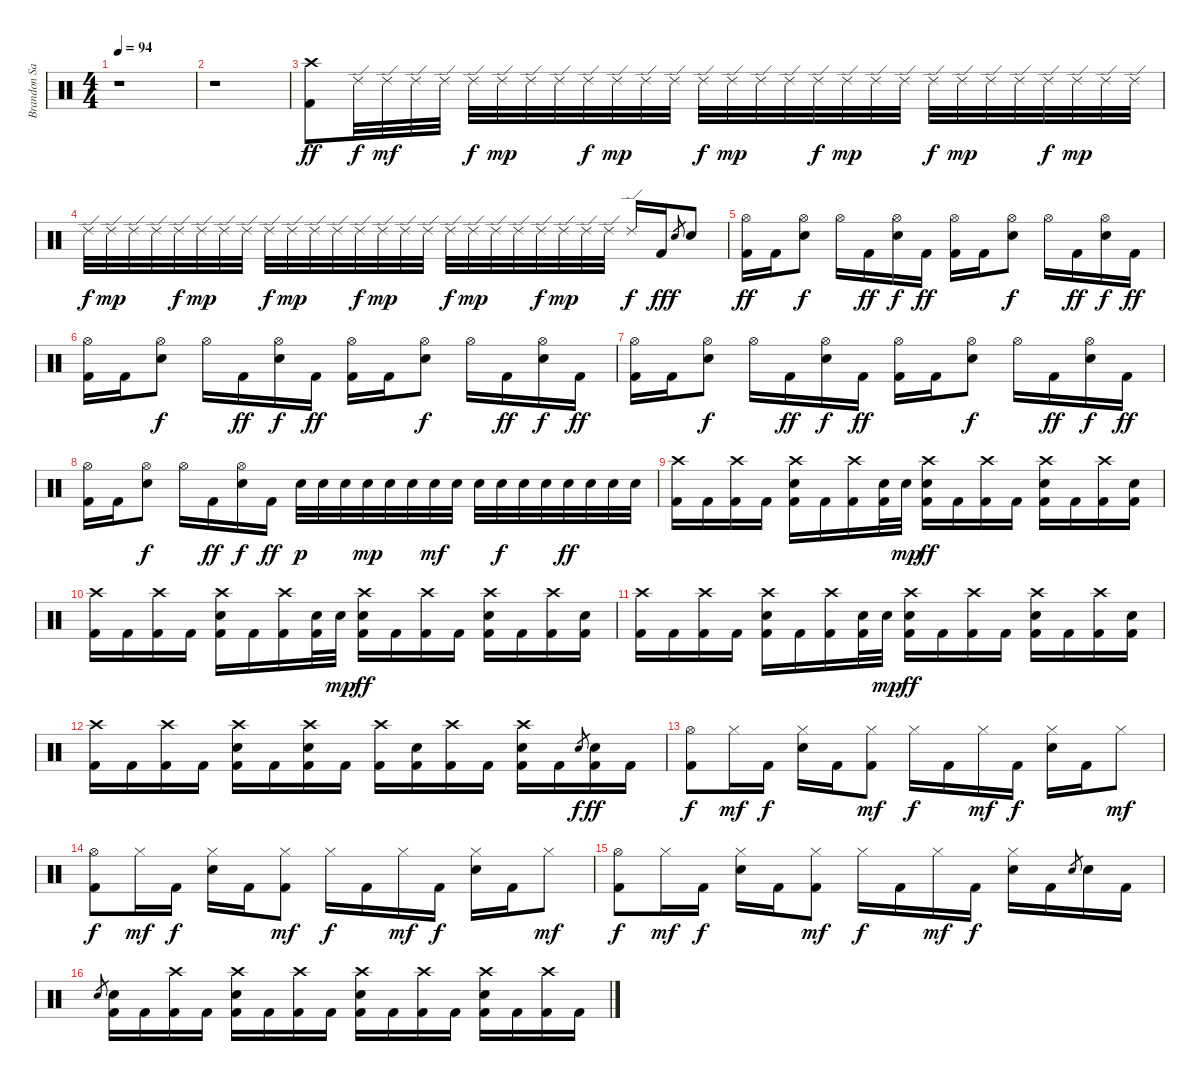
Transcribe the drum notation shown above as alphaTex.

\track ("Brandon Saller  (drums)" "Brandon Sa") {instrument percussion}
\staff {score}
\articulation defaults
\ts (4 4)
\tempo 94
\clef neutral
\ks c
r.1{dy ff} |
r.1 |
("Crash high (hit)" "Kick (hit) 2").8 "Ride (edge) 2".32{dy f} "Ride (edge) 2".32{dy mf} "Ride (edge) 2".32 "Ride (edge) 2".32 "Ride (edge) 2".32{dy f} "Ride (edge) 2".32{dy mp} "Ride (edge) 2".32 "Ride (edge) 2".32 "Ride (edge) 2".32{dy f} "Ride (edge) 2".32{dy mp} "Ride (edge) 2".32 "Ride (edge) 2".32 "Ride (edge) 2".32{dy f} "Ride (edge) 2".32{dy mp} "Ride (edge) 2".32 "Ride (edge) 2".32 "Ride (edge) 2".32{dy f} "Ride (edge) 2".32{dy mp} "Ride (edge) 2".32 "Ride (edge) 2".32 "Ride (edge) 2".32{dy f} "Ride (edge) 2".32{dy mp} "Ride (edge) 2".32 "Ride (edge) 2".32 "Ride (edge) 2".32{dy f} "Ride (edge) 2".32{dy mp} "Ride (edge) 2".32 "Ride (edge) 2".32 |
"Ride (edge) 2".32{dy f} "Ride (edge) 2".32{dy mp} "Ride (edge) 2".32 "Ride (edge) 2".32 "Ride (edge) 2".32{dy f} "Ride (edge) 2".32{dy mp} "Ride (edge) 2".32 "Ride (edge) 2".32 "Ride (edge) 2".32{dy f} "Ride (edge) 2".32{dy mp} "Ride (edge) 2".32 "Ride (edge) 2".32 "Ride (edge) 2".32{dy f} "Ride (edge) 2".32{dy mp} "Ride (edge) 2".32 "Ride (edge) 2".32 "Ride (edge) 2".32{dy f} "Ride (edge) 2".32{dy mp} "Ride (edge) 2".32 "Ride (edge) 2".32 "Ride (edge) 2".32{dy f} "Ride (edge) 2".32{dy mp} "Ride (edge) 2".32 "Ride (edge) 2".32 "Ride (edge) 2".16{dy f} "Kick (hit) 2".16{dy ff} "Electric Snare (hit)".8{gr dy f} "Electric Snare (hit)".8 |
("Hi-Hat (open)" "Kick (hit) 2").16{dy ff} "Kick (hit) 2".16 ("Hi-Hat (open)" "Electric Snare (hit)").8{dy f} "Hi-Hat (open)".16 "Kick (hit) 2".16{dy ff} ("Hi-Hat (open)" "Electric Snare (hit)").16{dy f} "Kick (hit) 2".16{dy ff} ("Hi-Hat (open)" "Kick (hit) 2").16 "Kick (hit) 2".16 ("Hi-Hat (open)" "Electric Snare (hit)").8{dy f} "Hi-Hat (open)".16 "Kick (hit) 2".16{dy ff} ("Hi-Hat (open)" "Electric Snare (hit)").16{dy f} "Kick (hit) 2".16{dy ff} |
("Hi-Hat (open)" "Kick (hit) 2").16 "Kick (hit) 2".16 ("Hi-Hat (open)" "Electric Snare (hit)").8{dy f} "Hi-Hat (open)".16 "Kick (hit) 2".16{dy ff} ("Hi-Hat (open)" "Electric Snare (hit)").16{dy f} "Kick (hit) 2".16{dy ff} ("Hi-Hat (open)" "Kick (hit) 2").16 "Kick (hit) 2".16 ("Hi-Hat (open)" "Electric Snare (hit)").8{dy f} "Hi-Hat (open)".16 "Kick (hit) 2".16{dy ff} ("Hi-Hat (open)" "Electric Snare (hit)").16{dy f} "Kick (hit) 2".16{dy ff} |
("Hi-Hat (open)" "Kick (hit) 2").16 "Kick (hit) 2".16 ("Hi-Hat (open)" "Electric Snare (hit)").8{dy f} "Hi-Hat (open)".16 "Kick (hit) 2".16{dy ff} ("Hi-Hat (open)" "Electric Snare (hit)").16{dy f} "Kick (hit) 2".16{dy ff} ("Hi-Hat (open)" "Kick (hit) 2").16 "Kick (hit) 2".16 ("Hi-Hat (open)" "Electric Snare (hit)").8{dy f} "Hi-Hat (open)".16 "Kick (hit) 2".16{dy ff} ("Hi-Hat (open)" "Electric Snare (hit)").16{dy f} "Kick (hit) 2".16{dy ff} |
("Hi-Hat (open)" "Kick (hit) 2").16 "Kick (hit) 2".16 ("Hi-Hat (open)" "Electric Snare (hit)").8{dy f} "Hi-Hat (open)".16 "Kick (hit) 2".16{dy ff} ("Hi-Hat (open)" "Electric Snare (hit)").16{dy f} "Kick (hit) 2".16{dy ff} "Electric Snare (hit)".32{dy p} "Electric Snare (hit)".32 "Electric Snare (hit)".32 "Electric Snare (hit)".32{dy mp} "Electric Snare (hit)".32 "Electric Snare (hit)".32 "Electric Snare (hit)".32{dy mf} "Electric Snare (hit)".32 "Electric Snare (hit)".32 "Electric Snare (hit)".32{dy f} "Electric Snare (hit)".32 "Electric Snare (hit)".32 "Electric Snare (hit)".32{dy ff} "Electric Snare (hit)".32 "Electric Snare (hit)".32 "Electric Snare (hit)".32 |
("Crash high (hit)" "Kick (hit) 2").16 "Kick (hit) 2".16 ("Crash high (hit)" "Kick (hit) 2").16 "Kick (hit) 2".16 ("Crash high (hit)" "Electric Snare (hit)" "Kick (hit) 2").16 "Kick (hit) 2".16 ("Crash high (hit)" "Kick (hit) 2").16 ("Electric Snare (hit)" "Kick (hit) 2").32 "Electric Snare (hit)".32{dy mp} ("Crash high (hit)" "Electric Snare (hit)" "Kick (hit) 2").16{dy ff} "Kick (hit) 2".16 ("Crash high (hit)" "Kick (hit) 2").16 "Kick (hit) 2".16 ("Crash high (hit)" "Electric Snare (hit)" "Kick (hit) 2").16 "Kick (hit) 2".16 ("Crash high (hit)" "Kick (hit) 2").16 ("Electric Snare (hit)" "Kick (hit) 2").16 |
("Crash high (hit)" "Kick (hit) 2").16 "Kick (hit) 2".16 ("Crash high (hit)" "Kick (hit) 2").16 "Kick (hit) 2".16 ("Crash high (hit)" "Electric Snare (hit)" "Kick (hit) 2").16 "Kick (hit) 2".16 ("Crash high (hit)" "Kick (hit) 2").16 ("Electric Snare (hit)" "Kick (hit) 2").32 "Electric Snare (hit)".32{dy mp} ("Crash high (hit)" "Electric Snare (hit)" "Kick (hit) 2").16{dy ff} "Kick (hit) 2".16 ("Crash high (hit)" "Kick (hit) 2").16 "Kick (hit) 2".16 ("Crash high (hit)" "Electric Snare (hit)" "Kick (hit) 2").16 "Kick (hit) 2".16 ("Crash high (hit)" "Kick (hit) 2").16 ("Electric Snare (hit)" "Kick (hit) 2").16 |
("Crash high (hit)" "Kick (hit) 2").16 "Kick (hit) 2".16 ("Crash high (hit)" "Kick (hit) 2").16 "Kick (hit) 2".16 ("Crash high (hit)" "Electric Snare (hit)" "Kick (hit) 2").16 "Kick (hit) 2".16 ("Crash high (hit)" "Kick (hit) 2").16 ("Electric Snare (hit)" "Kick (hit) 2").32 "Electric Snare (hit)".32{dy mp} ("Crash high (hit)" "Electric Snare (hit)" "Kick (hit) 2").16{dy ff} "Kick (hit) 2".16 ("Crash high (hit)" "Kick (hit) 2").16 "Kick (hit) 2".16 ("Crash high (hit)" "Electric Snare (hit)" "Kick (hit) 2").16 "Kick (hit) 2".16 ("Crash high (hit)" "Kick (hit) 2").16 ("Electric Snare (hit)" "Kick (hit) 2").16 |
("Crash high (hit)" "Kick (hit) 2").16 "Kick (hit) 2".16 ("Crash high (hit)" "Kick (hit) 2").16 "Kick (hit) 2".16 ("Crash high (hit)" "Electric Snare (hit)" "Kick (hit) 2").16 "Kick (hit) 2".16 ("Crash high (hit)" "Electric Snare (hit)" "Kick (hit) 2").16 "Kick (hit) 2".16 ("Crash high (hit)" "Kick (hit) 2").16 ("Electric Snare (hit)" "Kick (hit) 2").16 ("Crash high (hit)" "Kick (hit) 2").16 "Kick (hit) 2".16 ("Crash high (hit)" "Electric Snare (hit)" "Kick (hit) 2").16 "Kick (hit) 2".16 "Electric Snare (hit)".8{gr dy f} ("Electric Snare (hit)" "Kick (hit) 2").16{dy ff} "Kick (hit) 2".16 |
("Hi-Hat (open)" "Kick (hit) 2").8{dy f} "Hi-Hat (closed)".16{dy mf} "Kick (hit) 2".16{dy f} ("Hi-Hat (closed)" "Electric Snare (hit)").16 "Kick (hit) 2".16 ("Hi-Hat (closed)" "Kick (hit) 2").8{dy mf} "Hi-Hat (closed)".16{dy f} "Kick (hit) 2".16 "Hi-Hat (closed)".16{dy mf} "Kick (hit) 2".16{dy f} ("Hi-Hat (closed)" "Electric Snare (hit)").16 "Kick (hit) 2".16 "Hi-Hat (closed)".8{dy mf} |
("Hi-Hat (open)" "Kick (hit) 2").8{dy f} "Hi-Hat (closed)".16{dy mf} "Kick (hit) 2".16{dy f} ("Hi-Hat (closed)" "Electric Snare (hit)").16 "Kick (hit) 2".16 ("Hi-Hat (closed)" "Kick (hit) 2").8{dy mf} "Hi-Hat (closed)".16{dy f} "Kick (hit) 2".16 "Hi-Hat (closed)".16{dy mf} "Kick (hit) 2".16{dy f} ("Hi-Hat (closed)" "Electric Snare (hit)").16 "Kick (hit) 2".16 "Hi-Hat (closed)".8{dy mf} |
("Hi-Hat (open)" "Kick (hit) 2").8{dy f} "Hi-Hat (closed)".16{dy mf} "Kick (hit) 2".16{dy f} ("Hi-Hat (closed)" "Electric Snare (hit)").16 "Kick (hit) 2".16 ("Hi-Hat (closed)" "Kick (hit) 2").8{dy mf} "Hi-Hat (closed)".16{dy f} "Kick (hit) 2".16 "Hi-Hat (closed)".16{dy mf} "Kick (hit) 2".16{dy f} ("Hi-Hat (closed)" "Electric Snare (hit)").16 "Kick (hit) 2".16 "Electric Snare (hit)".8{gr} "Electric Snare (hit)".16 "Kick (hit) 2".16 |
"Electric Snare (hit)".8{gr} ("Electric Snare (hit)" "Kick (hit) 2").16 "Kick (hit) 2".16 ("Crash high (hit)" "Kick (hit) 2").16 "Kick (hit) 2".16 ("Crash high (hit)" "Electric Snare (hit)" "Kick (hit) 2").16 "Kick (hit) 2".16 ("Crash high (hit)" "Kick (hit) 2").16 "Kick (hit) 2".16 ("Crash high (hit)" "Electric Snare (hit)" "Kick (hit) 2").16 "Kick (hit) 2".16 ("Crash high (hit)" "Kick (hit) 2").16 "Kick (hit) 2".16 ("Crash high (hit)" "Electric Snare (hit)" "Kick (hit) 2").16 "Kick (hit) 2".16 ("Crash high (hit)" "Kick (hit) 2").16 "Kick (hit) 2".16
